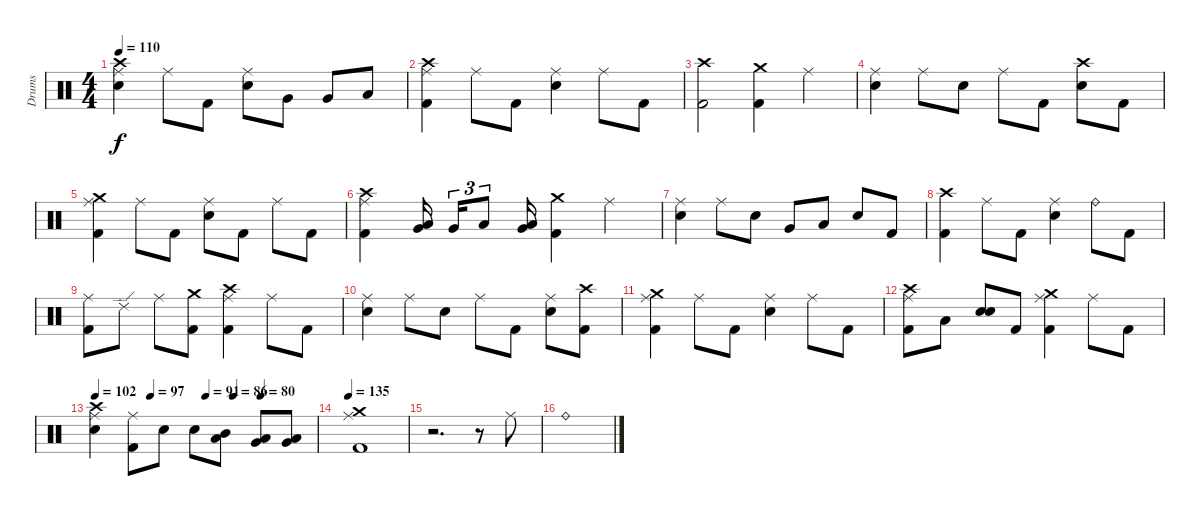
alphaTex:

\track ("Drums" "Drums") {instrument percussion}
\staff {score}
\articulation defaults
\ts (4 4)
\tempo 110
\clef neutral
\ks c
("Crash high (hit)" "Ride (middle)" "Electric Snare (hit)").4{dy f} "Ride (middle)".8 "Kick (hit) 2".8 ("Ride (middle)" "Electric Snare (hit)").8 "Very Low Tom (hit)".8 "Very Low Tom (hit)".8 "Low Floor Tom (hit)".8 |
("Crash high (hit)" "Ride (middle)" "Kick (hit) 2").4 "Ride (middle)".8 "Kick (hit) 2".8 ("Ride (middle)" "Electric Snare (hit)").4 "Ride (middle)".8 "Kick (hit) 2".8 |
("Crash high (hit)" "Kick (hit) 2").2 ("Crash medium (hit)" "Kick (hit) 2").4 "Ride (middle)".4 |
("Ride (middle)" "Electric Snare (hit)").4 "Ride (middle)".8 "Electric Snare (hit)".8 "Ride (middle)".8 "Kick (hit) 2".8 ("Crash high (hit)" "Electric Snare (hit)").8 "Kick (hit) 2".8 |
("Crash medium (hit)" "Ride (middle)" "Kick (hit) 2").4 "Ride (middle)".8 "Kick (hit) 2".8 ("Ride (middle)" "Electric Snare (hit)").8 "Kick (hit) 2".8 "Ride (middle)".8 "Kick (hit) 2".8 |
("Crash high (hit)" "Ride (middle)" "Kick (hit) 2").4 ("Low Tom (hit)" "Very Low Tom (hit)").16 "Very Low Tom (hit)".16{tu (3 2)} "Low Tom (hit)".8{tu (3 2)} ("Very Low Tom (hit)" "Low Floor Tom (hit)").16 ("Crash medium (hit)" "Kick (hit) 2").4 "Ride (middle)".4 |
("Ride (middle)" "Electric Snare (hit)").4 "Ride (middle)".8 "Electric Snare (hit)".8 "Very Low Tom (hit)".8 "Low Floor Tom (hit)".8 "Electric Snare (hit)".8 "Kick (hit) 2".8 |
("Crash high (hit)" "Kick (hit) 2").4 "Ride (middle)".8 "Kick (hit) 2".8 ("Ride (middle)" "Electric Snare (hit)").4 "Ride (bell)".8 "Kick (hit) 2".8 |
("Ride (middle)" "Kick (hit) 2").8 "Ride (edge) 2".8 "Ride (middle)".8 ("Crash medium (hit)" "Kick (hit) 2").8 ("Crash high (hit)" "Ride (middle)" "Kick (hit) 2").4 "Ride (middle)".8 "Kick (hit) 2".8 |
("Ride (middle)" "Electric Snare (hit)").4 "Ride (middle)".8 "Electric Snare (hit)".8 "Ride (middle)".8 "Kick (hit) 2".8 ("Ride (middle)" "Electric Snare (hit)").8 ("Crash high (hit)" "Kick (hit) 2").8 |
("Crash medium (hit)" "Ride (middle)" "Kick (hit) 2").4 "Ride (middle)".8 "Kick (hit) 2".8 ("Ride (middle)" "Electric Snare (hit)").4 "Ride (middle)".8 "Kick (hit) 2".8 |
("Crash high (hit)" "Ride (middle)" "Kick (hit) 2").8 "Low Floor Tom (hit)".8 ("Electric Snare (hit)" "Snare (hit) 2").8 "Kick (hit) 2".8 ("Crash medium (hit)" "Ride (middle)" "Kick (hit) 2").4 "Ride (middle)".8 "Kick (hit) 2".8 |
\tempo 102
\tempo (97 0.25)
\tempo (91 0.5)
\tempo (86 0.625)
\tempo (80 0.75)
("Crash high (hit)" "Ride (middle)" "Electric Snare (hit)").4 ("Ride (middle)" "Kick (hit) 2").8 "Electric Snare (hit)".8 "Electric Snare (hit)".8 ("Mid Tom (hit)" "Low Tom (hit)").8 ("Low Tom (hit)" "Very Low Tom (hit)").8 ("Very Low Tom (hit)" "Low Floor Tom (hit)").8 |
\tempo 135
("Crash medium (hit)" "Ride (middle)" "Kick (hit) 2").1 |
r.2{d} r.8 "Ride (middle)".8 |
"Ride (bell)".1
